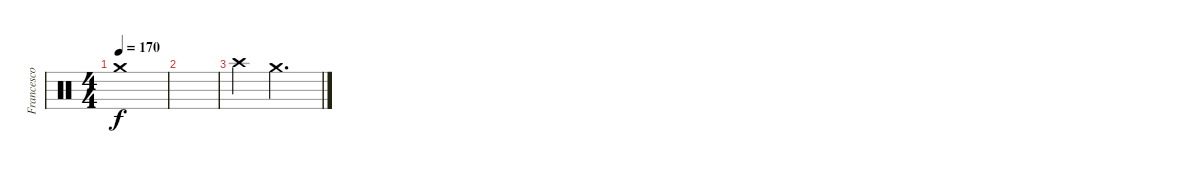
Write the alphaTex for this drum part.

\track ("Francesco Tresa" "Francesco ") {instrument percussion}
\staff {score}
\articulation defaults
\ts (4 4)
\tempo 170
\clef neutral
\ks c "Crash medium (hit)".1{dy f}
|
|
"Crash high (hit)".4 "Crash medium (hit)".2{d}
